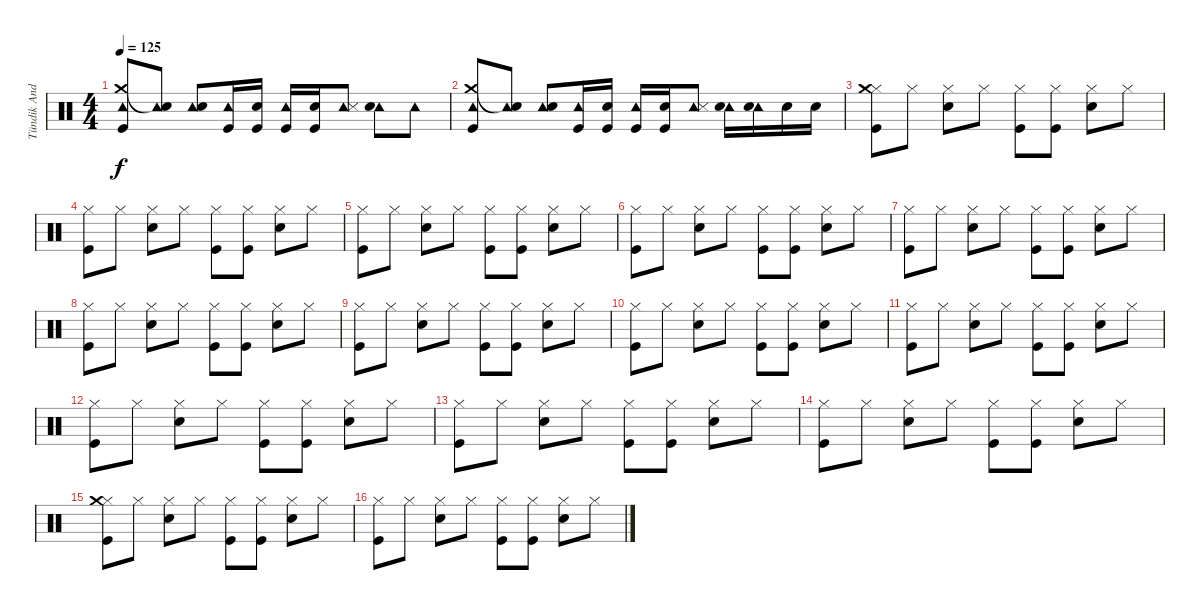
\track ("Tündik András - Dob" "Tündik And") {instrument percussion}
\staff {score}
\articulation defaults
\ts (4 4)
\tempo 125
\clef neutral
\ks c
("Tambourine (hit)" "Crash medium (hit)" "Kick (hit)").8{dy f} ("Tambourine (hit)" "Snare (hit)"{t}).8 ("Tambourine (hit)" "Snare (hit) 2").8 ("Tambourine (hit)" "Kick (hit)").16 ("Snare (hit) 2" "Kick (hit)").16 ("Tambourine (hit)" "Kick (hit)").16 ("Snare (hit) 2" "Kick (hit)").16 ("Tambourine (hit)" "Snare (side stick) 3").8 ("Tambourine (hit)" "Snare (hit) 2").8 "Tambourine (hit)".8 |
("Tambourine (hit)" "Crash medium (hit)" "Kick (hit)").8 ("Tambourine (hit)" "Snare (hit)"{t}).8 ("Tambourine (hit)" "Snare (hit) 2").8 ("Tambourine (hit)" "Kick (hit)").16 ("Snare (hit) 2" "Kick (hit)").16 ("Tambourine (hit)" "Kick (hit)").16 ("Snare (hit) 2" "Kick (hit)").16 ("Tambourine (hit)" "Snare (side stick) 3").8 ("Tambourine (hit)" "Snare (hit) 2").16 ("Tambourine (hit)" "Snare (hit) 2").16 "Snare (hit) 2".16 "Snare (hit) 2".16 |
("Hi-Hat (closed)" "Crash medium (hit)" "Kick (hit)").8 "Hi-Hat (closed)".8 ("Hi-Hat (closed)" "Snare (hit) 2").8 "Hi-Hat (closed)".8 ("Hi-Hat (closed)" "Kick (hit)").8 ("Hi-Hat (closed)" "Kick (hit)").8 ("Hi-Hat (closed)" "Snare (hit) 2").8 "Hi-Hat (closed)".8 |
("Hi-Hat (closed)" "Kick (hit)").8 "Hi-Hat (closed)".8 ("Hi-Hat (closed)" "Snare (hit) 2").8 "Hi-Hat (closed)".8 ("Hi-Hat (closed)" "Kick (hit)").8 ("Hi-Hat (closed)" "Kick (hit)").8 ("Hi-Hat (closed)" "Snare (hit) 2").8 "Hi-Hat (closed)".8 |
("Hi-Hat (closed)" "Kick (hit)").8 "Hi-Hat (closed)".8 ("Hi-Hat (closed)" "Snare (hit) 2").8 "Hi-Hat (closed)".8 ("Hi-Hat (closed)" "Kick (hit)").8 ("Hi-Hat (closed)" "Kick (hit)").8 ("Hi-Hat (closed)" "Snare (hit) 2").8 "Hi-Hat (closed)".8 |
("Hi-Hat (closed)" "Kick (hit)").8 "Hi-Hat (closed)".8 ("Hi-Hat (closed)" "Snare (hit) 2").8 "Hi-Hat (closed)".8 ("Hi-Hat (closed)" "Kick (hit)").8 ("Hi-Hat (closed)" "Kick (hit)").8 ("Hi-Hat (closed)" "Snare (hit) 2").8 "Hi-Hat (closed)".8 |
("Hi-Hat (closed)" "Kick (hit)").8 "Hi-Hat (closed)".8 ("Hi-Hat (closed)" "Snare (hit) 2").8 "Hi-Hat (closed)".8 ("Hi-Hat (closed)" "Kick (hit)").8 ("Hi-Hat (closed)" "Kick (hit)").8 ("Hi-Hat (closed)" "Snare (hit) 2").8 "Hi-Hat (closed)".8 |
("Hi-Hat (closed)" "Kick (hit)").8 "Hi-Hat (closed)".8 ("Hi-Hat (closed)" "Snare (hit) 2").8 "Hi-Hat (closed)".8 ("Hi-Hat (closed)" "Kick (hit)").8 ("Hi-Hat (closed)" "Kick (hit)").8 ("Hi-Hat (closed)" "Snare (hit) 2").8 "Hi-Hat (closed)".8 |
("Hi-Hat (closed)" "Kick (hit)").8 "Hi-Hat (closed)".8 ("Hi-Hat (closed)" "Snare (hit) 2").8 "Hi-Hat (closed)".8 ("Hi-Hat (closed)" "Kick (hit)").8 ("Hi-Hat (closed)" "Kick (hit)").8 ("Hi-Hat (closed)" "Snare (hit) 2").8 "Hi-Hat (closed)".8 |
("Hi-Hat (closed)" "Kick (hit)").8 "Hi-Hat (closed)".8 ("Hi-Hat (closed)" "Snare (hit) 2").8 "Hi-Hat (closed)".8 ("Hi-Hat (closed)" "Kick (hit)").8 ("Hi-Hat (closed)" "Kick (hit)").8 ("Hi-Hat (closed)" "Snare (hit) 2").8 "Hi-Hat (closed)".8 |
("Hi-Hat (closed)" "Kick (hit)").8 "Hi-Hat (closed)".8 ("Hi-Hat (closed)" "Snare (hit) 2").8 "Hi-Hat (closed)".8 ("Hi-Hat (closed)" "Kick (hit)").8 ("Hi-Hat (closed)" "Kick (hit)").8 ("Hi-Hat (closed)" "Snare (hit) 2").8 "Hi-Hat (closed)".8 |
("Hi-Hat (closed)" "Kick (hit)").8 "Hi-Hat (closed)".8 ("Hi-Hat (closed)" "Snare (hit) 2").8 "Hi-Hat (closed)".8 ("Hi-Hat (closed)" "Kick (hit)").8 ("Hi-Hat (closed)" "Kick (hit)").8 ("Hi-Hat (closed)" "Snare (hit) 2").8 "Hi-Hat (closed)".8 |
("Hi-Hat (closed)" "Kick (hit)").8 "Hi-Hat (closed)".8 ("Hi-Hat (closed)" "Snare (hit) 2").8 "Hi-Hat (closed)".8 ("Hi-Hat (closed)" "Kick (hit)").8 ("Hi-Hat (closed)" "Kick (hit)").8 ("Hi-Hat (closed)" "Snare (hit) 2").8 "Hi-Hat (closed)".8 |
("Hi-Hat (closed)" "Kick (hit)").8 "Hi-Hat (closed)".8 ("Hi-Hat (closed)" "Snare (hit) 2").8 "Hi-Hat (closed)".8 ("Hi-Hat (closed)" "Kick (hit)").8 ("Hi-Hat (closed)" "Kick (hit)").8 ("Hi-Hat (closed)" "Snare (hit) 2").8 "Hi-Hat (closed)".8 |
("Hi-Hat (closed)" "Crash medium (hit)" "Kick (hit)").8 "Hi-Hat (closed)".8 ("Hi-Hat (closed)" "Snare (hit) 2").8 "Hi-Hat (closed)".8 ("Hi-Hat (closed)" "Kick (hit)").8 ("Hi-Hat (closed)" "Kick (hit)").8 ("Hi-Hat (closed)" "Snare (hit) 2").8 "Hi-Hat (closed)".8 |
("Hi-Hat (closed)" "Kick (hit)").8 "Hi-Hat (closed)".8 ("Hi-Hat (closed)" "Snare (hit) 2").8 "Hi-Hat (closed)".8 ("Hi-Hat (closed)" "Kick (hit)").8 ("Hi-Hat (closed)" "Kick (hit)").8 ("Hi-Hat (closed)" "Snare (hit) 2").8 "Hi-Hat (closed)".8
